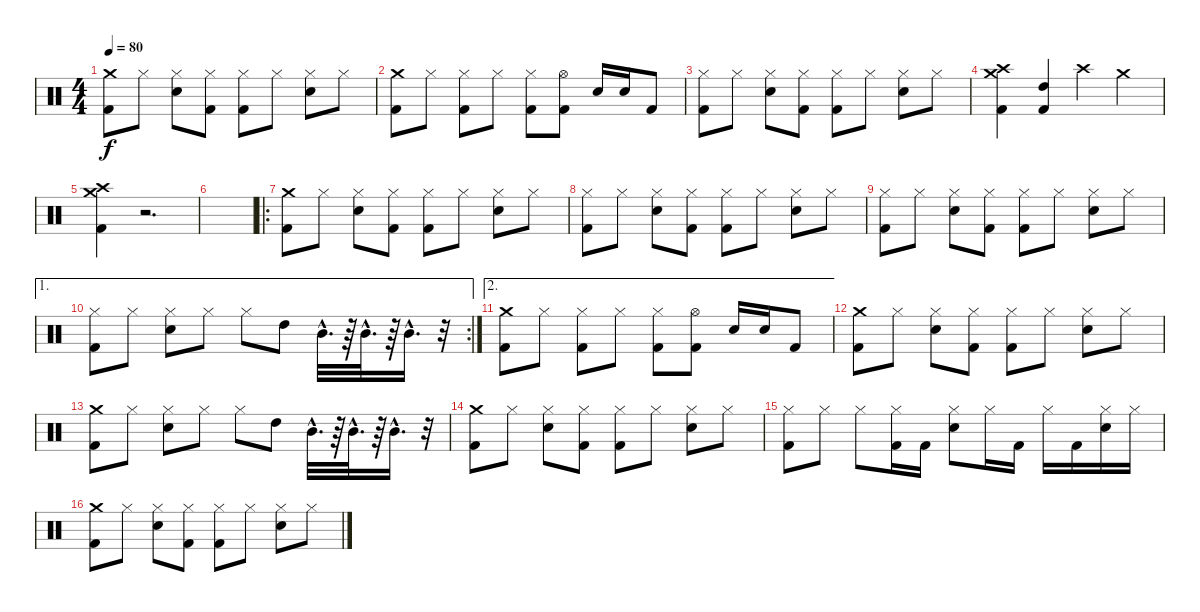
\track "" {instrument percussion}
\staff {score}
\articulation defaults
\ts (4 4)
\tempo 80
\clef neutral
\ks c
("Kick (hit) 2" "Crash medium (hit)").8{dy f} "Hi-Hat (closed)".8 ("Hi-Hat (closed)" "Snare (hit) 2").8 ("Hi-Hat (closed)" "Kick (hit) 2").8 ("Kick (hit) 2" "Hi-Hat (closed)").8 "Hi-Hat (closed)".8 ("Hi-Hat (closed)" "Snare (hit) 2").8 "Hi-Hat (closed)".8 |
("Crash medium (hit)" "Kick (hit) 2").8 "Hi-Hat (closed)".8 ("Hi-Hat (closed)" "Kick (hit) 2").8 "Hi-Hat (closed)".8 ("Hi-Hat (closed)" "Kick (hit) 2").8 ("Hi-Hat (open)" "Kick (hit) 2").8 "Snare (hit) 2".16 "Snare (hit) 2".16 "Kick (hit) 2".8 |
("Kick (hit) 2" "Hi-Hat (closed)").8 "Hi-Hat (closed)".8 ("Hi-Hat (closed)" "Snare (hit) 2").8 ("Hi-Hat (closed)" "Kick (hit) 2").8 ("Kick (hit) 2" "Hi-Hat (closed)").8 "Hi-Hat (closed)".8 ("Hi-Hat (closed)" "Snare (hit) 2").8 "Hi-Hat (closed)".8 |
("Crash high (hit)" "Crash medium (hit)" "Kick (hit) 2").4 ("High Tom (hit)" "Kick (hit) 2").4 "Crash high (hit)".4 "Crash medium (hit)".4 |
("Crash high (hit)" "Crash medium (hit)" "Kick (hit) 2").4 r.2{d} |
|
\ro
("Kick (hit) 2" "Crash medium (hit)").8 "Hi-Hat (closed)".8 ("Hi-Hat (closed)" "Snare (hit) 2").8 ("Hi-Hat (closed)" "Kick (hit) 2").8 ("Kick (hit) 2" "Hi-Hat (closed)").8 "Hi-Hat (closed)".8 ("Hi-Hat (closed)" "Snare (hit) 2").8 "Hi-Hat (closed)".8 |
("Kick (hit) 2" "Hi-Hat (closed)").8 "Hi-Hat (closed)".8 ("Hi-Hat (closed)" "Snare (hit) 2").8 ("Hi-Hat (closed)" "Kick (hit) 2").8 ("Kick (hit) 2" "Hi-Hat (closed)").8 "Hi-Hat (closed)".8 ("Hi-Hat (closed)" "Snare (hit) 2").8 "Hi-Hat (closed)".8 |
("Kick (hit) 2" "Hi-Hat (closed)").8 "Hi-Hat (closed)".8 ("Hi-Hat (closed)" "Snare (hit) 2").8 ("Hi-Hat (closed)" "Kick (hit) 2").8 ("Kick (hit) 2" "Hi-Hat (closed)").8 "Hi-Hat (closed)".8 ("Hi-Hat (closed)" "Snare (hit) 2").8 "Hi-Hat (closed)".8 |
\ae 1
\rc 2
("Hi-Hat (closed)" "Kick (hit) 2").8 "Hi-Hat (closed)".8 ("Snare (hit) 2" "Hi-Hat (closed)").8 "Hi-Hat (closed)".8 "Hi-Hat (closed)".8 "High Tom (hit)".8 "Mid Tom (hit)"{hac}.32{d} r.64 "Mid Tom (hit)"{hac}.32{d} r.64 "Mid Tom (hit)"{hac}.16{d} r.32 |
\ae 2
("Crash medium (hit)" "Kick (hit) 2").8 "Hi-Hat (closed)".8 ("Hi-Hat (closed)" "Kick (hit) 2").8 "Hi-Hat (closed)".8 ("Hi-Hat (closed)" "Kick (hit) 2").8 ("Hi-Hat (open)" "Kick (hit) 2").8 "Snare (hit) 2".16 "Snare (hit) 2".16 "Kick (hit) 2".8 |
("Kick (hit) 2" "Crash medium (hit)").8 "Hi-Hat (closed)".8 ("Hi-Hat (closed)" "Snare (hit) 2").8 ("Hi-Hat (closed)" "Kick (hit) 2").8 ("Kick (hit) 2" "Hi-Hat (closed)").8 "Hi-Hat (closed)".8 ("Hi-Hat (closed)" "Snare (hit) 2").8 "Hi-Hat (closed)".8 |
("Crash medium (hit)" "Kick (hit) 2").8 "Hi-Hat (closed)".8 ("Snare (hit) 2" "Hi-Hat (closed)").8 "Hi-Hat (closed)".8 "Hi-Hat (closed)".8 "High Tom (hit)".8 "Mid Tom (hit)"{hac}.32{d} r.64 "Mid Tom (hit)"{hac}.32{d} r.64 "Mid Tom (hit)"{hac}.16{d} r.32 |
("Kick (hit) 2" "Crash medium (hit)").8 "Hi-Hat (closed)".8 ("Hi-Hat (closed)" "Snare (hit) 2").8 ("Hi-Hat (closed)" "Kick (hit) 2").8 ("Kick (hit) 2" "Hi-Hat (closed)").8 "Hi-Hat (closed)".8 ("Hi-Hat (closed)" "Snare (hit) 2").8 "Hi-Hat (closed)".8 |
("Hi-Hat (closed)" "Kick (hit) 2").8 "Hi-Hat (closed)".8 "Hi-Hat (closed)".8 ("Hi-Hat (closed)" "Kick (hit) 2").16 "Kick (hit) 2".16 ("Hi-Hat (closed)" "Electric Snare (hit)").8 "Hi-Hat (closed)".16 "Kick (hit) 2".16 "Hi-Hat (closed)".16 "Kick (hit) 2".16 ("Hi-Hat (closed)" "Electric Snare (hit)").16 "Hi-Hat (closed)".16 |
("Kick (hit) 2" "Crash medium (hit)").8 "Hi-Hat (closed)".8 ("Hi-Hat (closed)" "Snare (hit) 2").8 ("Hi-Hat (closed)" "Kick (hit) 2").8 ("Kick (hit) 2" "Hi-Hat (closed)").8 "Hi-Hat (closed)".8 ("Hi-Hat (closed)" "Snare (hit) 2").8 "Hi-Hat (closed)".8
